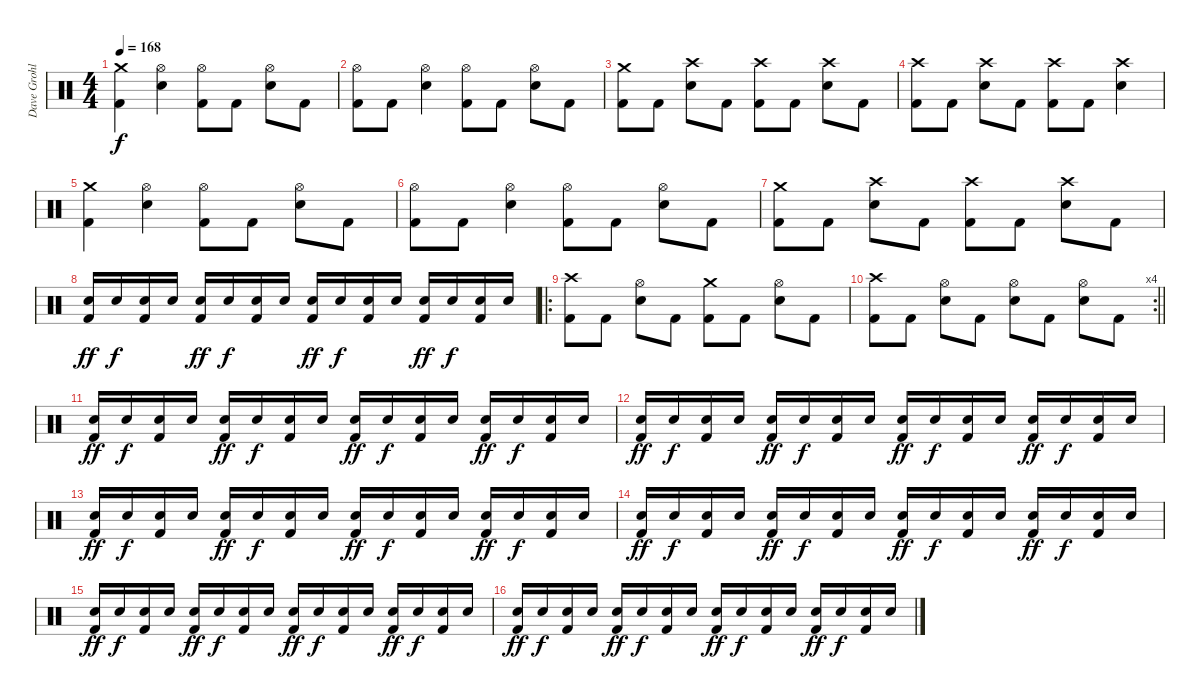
\track ("Dave Grohl - Drums" "Dave Grohl") {instrument percussion}
\staff {score}
\articulation defaults
\ts (4 4)
\tempo 168
\clef neutral
\ks c
("Crash medium (hit)" "Kick (hit) 2").4{dy f} ("Hi-Hat (open)" "Electric Snare (hit)").4 ("Hi-Hat (open)" "Kick (hit) 2").8 "Kick (hit) 2".8 ("Hi-Hat (open)" "Electric Snare (hit)").8 "Kick (hit) 2".8 |
("Hi-Hat (open)" "Kick (hit) 2").8 "Kick (hit) 2".8 ("Hi-Hat (open)" "Electric Snare (hit)").4 ("Hi-Hat (open)" "Kick (hit) 2").8 "Kick (hit) 2".8 ("Hi-Hat (open)" "Electric Snare (hit)").8 "Kick (hit) 2".8 |
("Crash medium (hit)" "Kick (hit) 2").8 "Kick (hit) 2".8 ("Crash high (hit)" "Electric Snare (hit)").8 "Kick (hit) 2".8 ("Crash high (hit)" "Kick (hit) 2").8 "Kick (hit) 2".8 ("Crash high (hit)" "Electric Snare (hit)").8 "Kick (hit) 2".8 |
("Crash high (hit)" "Kick (hit) 2").8 "Kick (hit) 2".8 ("Crash high (hit)" "Electric Snare (hit)").8 "Kick (hit) 2".8 ("Crash high (hit)" "Kick (hit) 2").8 "Kick (hit) 2".8 ("Crash high (hit)" "Electric Snare (hit)").4 |
("Crash medium (hit)" "Kick (hit) 2").4 ("Hi-Hat (open)" "Electric Snare (hit)").4 ("Hi-Hat (open)" "Kick (hit) 2").8 "Kick (hit) 2".8 ("Hi-Hat (open)" "Electric Snare (hit)").8 "Kick (hit) 2".8 |
("Hi-Hat (open)" "Kick (hit) 2").8 "Kick (hit) 2".8 ("Hi-Hat (open)" "Electric Snare (hit)").4 ("Hi-Hat (open)" "Kick (hit) 2").8 "Kick (hit) 2".8 ("Hi-Hat (open)" "Electric Snare (hit)").8 "Kick (hit) 2".8 |
("Crash medium (hit)" "Kick (hit) 2").8 "Kick (hit) 2".8 ("Crash high (hit)" "Electric Snare (hit)").8 "Kick (hit) 2".8 ("Crash high (hit)" "Kick (hit) 2").8 "Kick (hit) 2".8 ("Crash high (hit)" "Electric Snare (hit)").8 "Kick (hit) 2".8 |
("Electric Snare (hit)" "Kick (hit) 2").16{dy ff volume 12} "Electric Snare (hit)".16{dy f} ("Electric Snare (hit)" "Kick (hit) 2").16 "Electric Snare (hit)".16 ("Electric Snare (hit)" "Kick (hit) 2").16{dy ff} "Electric Snare (hit)".16{dy f} ("Electric Snare (hit)" "Kick (hit) 2").16 "Electric Snare (hit)".16 ("Electric Snare (hit)" "Kick (hit) 2").16{dy ff} "Electric Snare (hit)".16{dy f} ("Electric Snare (hit)" "Kick (hit) 2").16 "Electric Snare (hit)".16 ("Electric Snare (hit)" "Kick (hit) 2").16{dy ff} "Electric Snare (hit)".16{dy f} ("Electric Snare (hit)" "Kick (hit) 2").16 "Electric Snare (hit)".16 |
\ro
("Crash high (hit)" "Kick (hit) 2").8{volume 13} "Kick (hit) 2".8 ("Hi-Hat (open)" "Electric Snare (hit)").8 "Kick (hit) 2".8 ("Crash medium (hit)" "Kick (hit) 2").8 "Kick (hit) 2".8 ("Hi-Hat (open)" "Electric Snare (hit)").8 "Kick (hit) 2".8 |
\rc 4
\barLineRight lightlight
("Crash high (hit)" "Kick (hit) 2").8{volume 13} "Kick (hit) 2".8 ("Hi-Hat (open)" "Electric Snare (hit)").8 "Kick (hit) 2".8 ("Hi-Hat (open)" "Electric Snare (hit)").8 "Kick (hit) 2".8 ("Hi-Hat (open)" "Electric Snare (hit)").8 "Kick (hit) 2".8 |
("Electric Snare (hit)" "Kick (hit) 2").16{dy ff volume 12} "Electric Snare (hit)".16{dy f} ("Electric Snare (hit)" "Kick (hit) 2").16 "Electric Snare (hit)".16 ("Electric Snare (hit)" "Kick (hit) 2").16{dy ff} "Electric Snare (hit)".16{dy f} ("Electric Snare (hit)" "Kick (hit) 2").16 "Electric Snare (hit)".16 ("Electric Snare (hit)" "Kick (hit) 2").16{dy ff} "Electric Snare (hit)".16{dy f} ("Electric Snare (hit)" "Kick (hit) 2").16 "Electric Snare (hit)".16 ("Electric Snare (hit)" "Kick (hit) 2").16{dy ff} "Electric Snare (hit)".16{dy f} ("Electric Snare (hit)" "Kick (hit) 2").16 "Electric Snare (hit)".16 |
("Electric Snare (hit)" "Kick (hit) 2").16{dy ff} "Electric Snare (hit)".16{dy f} ("Electric Snare (hit)" "Kick (hit) 2").16 "Electric Snare (hit)".16 ("Electric Snare (hit)" "Kick (hit) 2").16{dy ff} "Electric Snare (hit)".16{dy f} ("Electric Snare (hit)" "Kick (hit) 2").16 "Electric Snare (hit)".16 ("Electric Snare (hit)" "Kick (hit) 2").16{dy ff} "Electric Snare (hit)".16{dy f} ("Electric Snare (hit)" "Kick (hit) 2").16 "Electric Snare (hit)".16 ("Electric Snare (hit)" "Kick (hit) 2").16{dy ff} "Electric Snare (hit)".16{dy f} ("Electric Snare (hit)" "Kick (hit) 2").16 "Electric Snare (hit)".16 |
("Electric Snare (hit)" "Kick (hit) 2").16{dy ff} "Electric Snare (hit)".16{dy f} ("Electric Snare (hit)" "Kick (hit) 2").16 "Electric Snare (hit)".16 ("Electric Snare (hit)" "Kick (hit) 2").16{dy ff} "Electric Snare (hit)".16{dy f} ("Electric Snare (hit)" "Kick (hit) 2").16 "Electric Snare (hit)".16 ("Electric Snare (hit)" "Kick (hit) 2").16{dy ff} "Electric Snare (hit)".16{dy f} ("Electric Snare (hit)" "Kick (hit) 2").16 "Electric Snare (hit)".16 ("Electric Snare (hit)" "Kick (hit) 2").16{dy ff} "Electric Snare (hit)".16{dy f} ("Electric Snare (hit)" "Kick (hit) 2").16 "Electric Snare (hit)".16 |
("Electric Snare (hit)" "Kick (hit) 2").16{dy ff} "Electric Snare (hit)".16{dy f} ("Electric Snare (hit)" "Kick (hit) 2").16 "Electric Snare (hit)".16 ("Electric Snare (hit)" "Kick (hit) 2").16{dy ff} "Electric Snare (hit)".16{dy f} ("Electric Snare (hit)" "Kick (hit) 2").16 "Electric Snare (hit)".16 ("Electric Snare (hit)" "Kick (hit) 2").16{dy ff} "Electric Snare (hit)".16{dy f} ("Electric Snare (hit)" "Kick (hit) 2").16 "Electric Snare (hit)".16 ("Electric Snare (hit)" "Kick (hit) 2").16{dy ff} "Electric Snare (hit)".16{dy f} ("Electric Snare (hit)" "Kick (hit) 2").16 "Electric Snare (hit)".16 |
("Electric Snare (hit)" "Kick (hit) 2").16{dy ff volume 12} "Electric Snare (hit)".16{dy f} ("Electric Snare (hit)" "Kick (hit) 2").16 "Electric Snare (hit)".16 ("Electric Snare (hit)" "Kick (hit) 2").16{dy ff} "Electric Snare (hit)".16{dy f} ("Electric Snare (hit)" "Kick (hit) 2").16 "Electric Snare (hit)".16 ("Electric Snare (hit)" "Kick (hit) 2").16{dy ff} "Electric Snare (hit)".16{dy f} ("Electric Snare (hit)" "Kick (hit) 2").16 "Electric Snare (hit)".16 ("Electric Snare (hit)" "Kick (hit) 2").16{dy ff} "Electric Snare (hit)".16{dy f} ("Electric Snare (hit)" "Kick (hit) 2").16 "Electric Snare (hit)".16 |
("Electric Snare (hit)" "Kick (hit) 2").16{dy ff volume 12} "Electric Snare (hit)".16{dy f} ("Electric Snare (hit)" "Kick (hit) 2").16 "Electric Snare (hit)".16 ("Electric Snare (hit)" "Kick (hit) 2").16{dy ff} "Electric Snare (hit)".16{dy f} ("Electric Snare (hit)" "Kick (hit) 2").16 "Electric Snare (hit)".16 ("Electric Snare (hit)" "Kick (hit) 2").16{dy ff} "Electric Snare (hit)".16{dy f} ("Electric Snare (hit)" "Kick (hit) 2").16 "Electric Snare (hit)".16 ("Electric Snare (hit)" "Kick (hit) 2").16{dy ff} "Electric Snare (hit)".16{dy f} ("Electric Snare (hit)" "Kick (hit) 2").16 "Electric Snare (hit)".16
